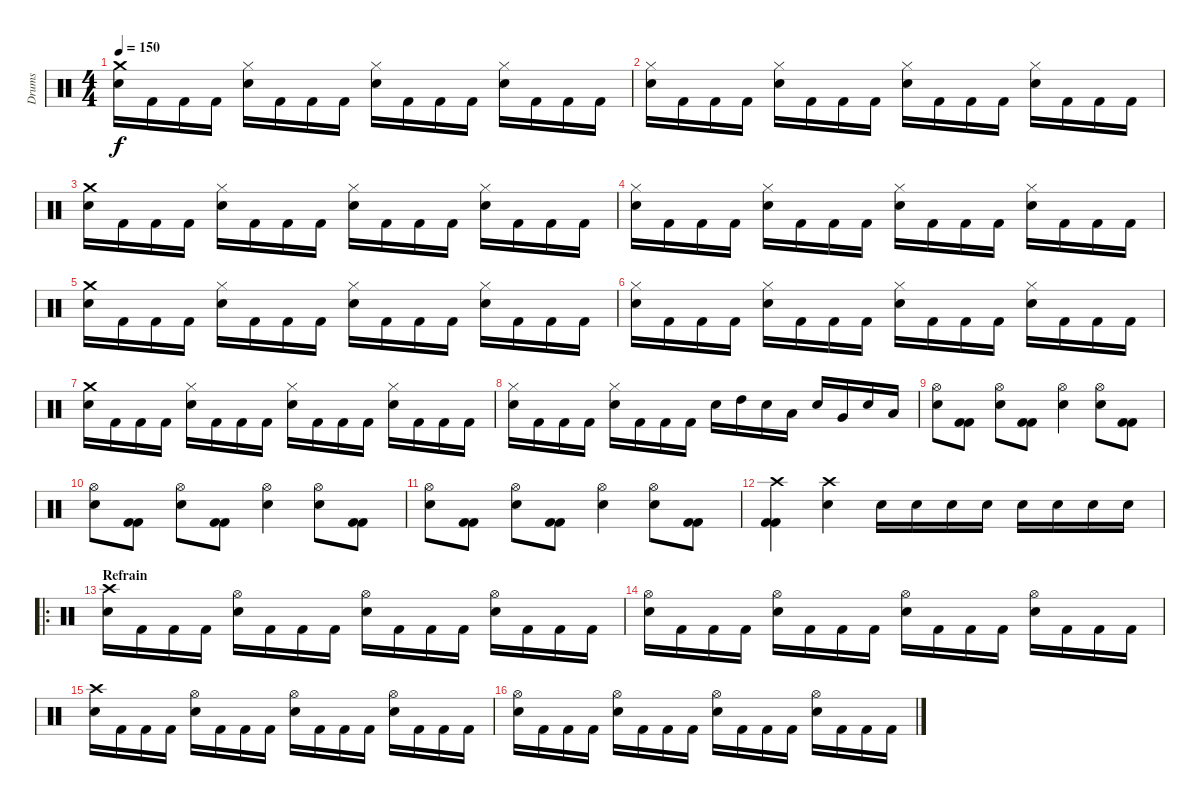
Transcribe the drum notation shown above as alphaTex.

\track ("Drums" "Drums") {instrument percussion}
\staff {score}
\articulation defaults
\ts (4 4)
\tempo 150
\clef neutral
\ks c
("Crash medium (hit)" "Electric Snare (hit)").16{dy f} "Kick (hit) 2".16 "Kick (hit) 2".16 "Kick (hit) 2".16 ("Electric Snare (hit)" "Hi-Hat (closed)").16 "Kick (hit) 2".16 "Kick (hit) 2".16 "Kick (hit) 2".16 ("Hi-Hat (closed)" "Electric Snare (hit)").16 "Kick (hit) 2".16 "Kick (hit) 2".16 "Kick (hit) 2".16 ("Electric Snare (hit)" "Hi-Hat (closed)").16 "Kick (hit) 2".16 "Kick (hit) 2".16 "Kick (hit) 2".16 |
("Hi-Hat (closed)" "Electric Snare (hit)").16 "Kick (hit) 2".16 "Kick (hit) 2".16 "Kick (hit) 2".16 ("Electric Snare (hit)" "Hi-Hat (closed)").16 "Kick (hit) 2".16 "Kick (hit) 2".16 "Kick (hit) 2".16 ("Hi-Hat (closed)" "Electric Snare (hit)").16 "Kick (hit) 2".16 "Kick (hit) 2".16 "Kick (hit) 2".16 ("Electric Snare (hit)" "Hi-Hat (closed)").16 "Kick (hit) 2".16 "Kick (hit) 2".16 "Kick (hit) 2".16 |
("Crash medium (hit)" "Electric Snare (hit)").16 "Kick (hit) 2".16 "Kick (hit) 2".16 "Kick (hit) 2".16 ("Electric Snare (hit)" "Hi-Hat (closed)").16 "Kick (hit) 2".16 "Kick (hit) 2".16 "Kick (hit) 2".16 ("Hi-Hat (closed)" "Electric Snare (hit)").16 "Kick (hit) 2".16 "Kick (hit) 2".16 "Kick (hit) 2".16 ("Electric Snare (hit)" "Hi-Hat (closed)").16 "Kick (hit) 2".16 "Kick (hit) 2".16 "Kick (hit) 2".16 |
("Hi-Hat (closed)" "Electric Snare (hit)").16 "Kick (hit) 2".16 "Kick (hit) 2".16 "Kick (hit) 2".16 ("Electric Snare (hit)" "Hi-Hat (closed)").16 "Kick (hit) 2".16 "Kick (hit) 2".16 "Kick (hit) 2".16 ("Hi-Hat (closed)" "Electric Snare (hit)").16 "Kick (hit) 2".16 "Kick (hit) 2".16 "Kick (hit) 2".16 ("Electric Snare (hit)" "Hi-Hat (closed)").16 "Kick (hit) 2".16 "Kick (hit) 2".16 "Kick (hit) 2".16 |
("Crash medium (hit)" "Electric Snare (hit)").16 "Kick (hit) 2".16 "Kick (hit) 2".16 "Kick (hit) 2".16 ("Electric Snare (hit)" "Hi-Hat (closed)").16 "Kick (hit) 2".16 "Kick (hit) 2".16 "Kick (hit) 2".16 ("Hi-Hat (closed)" "Electric Snare (hit)").16 "Kick (hit) 2".16 "Kick (hit) 2".16 "Kick (hit) 2".16 ("Electric Snare (hit)" "Hi-Hat (closed)").16 "Kick (hit) 2".16 "Kick (hit) 2".16 "Kick (hit) 2".16 |
("Hi-Hat (closed)" "Electric Snare (hit)").16 "Kick (hit) 2".16 "Kick (hit) 2".16 "Kick (hit) 2".16 ("Electric Snare (hit)" "Hi-Hat (closed)").16 "Kick (hit) 2".16 "Kick (hit) 2".16 "Kick (hit) 2".16 ("Hi-Hat (closed)" "Electric Snare (hit)").16 "Kick (hit) 2".16 "Kick (hit) 2".16 "Kick (hit) 2".16 ("Electric Snare (hit)" "Hi-Hat (closed)").16 "Kick (hit) 2".16 "Kick (hit) 2".16 "Kick (hit) 2".16 |
("Crash medium (hit)" "Electric Snare (hit)").16 "Kick (hit) 2".16 "Kick (hit) 2".16 "Kick (hit) 2".16 ("Electric Snare (hit)" "Hi-Hat (closed)").16 "Kick (hit) 2".16 "Kick (hit) 2".16 "Kick (hit) 2".16 ("Hi-Hat (closed)" "Electric Snare (hit)").16 "Kick (hit) 2".16 "Kick (hit) 2".16 "Kick (hit) 2".16 ("Electric Snare (hit)" "Hi-Hat (closed)").16 "Kick (hit) 2".16 "Kick (hit) 2".16 "Kick (hit) 2".16 |
("Hi-Hat (closed)" "Electric Snare (hit)").16 "Kick (hit) 2".16 "Kick (hit) 2".16 "Kick (hit) 2".16 ("Electric Snare (hit)" "Hi-Hat (closed)").16 "Kick (hit) 2".16 "Kick (hit) 2".16 "Kick (hit) 2".16 "Electric Snare (hit)".16 "High Tom (hit)".16 "Electric Snare (hit)".16 "Low Tom (hit)".16 "Electric Snare (hit)".16 "Very Low Tom (hit)".16 "Electric Snare (hit)".16 "Low Floor Tom (hit)".16 |
("Hi-Hat (open)" "Electric Snare (hit)").8 ("Kick (hit) 2" "Kick (hit) 2").8 ("Electric Snare (hit)" "Hi-Hat (open)").8 ("Kick (hit) 2" "Kick (hit) 2").8 ("Hi-Hat (open)" "Electric Snare (hit)").4 ("Hi-Hat (open)" "Electric Snare (hit)").8 ("Kick (hit) 2" "Kick (hit) 2").8 |
("Hi-Hat (open)" "Electric Snare (hit)").8 ("Kick (hit) 2" "Kick (hit) 2").8 ("Electric Snare (hit)" "Hi-Hat (open)").8 ("Kick (hit) 2" "Kick (hit) 2").8 ("Hi-Hat (open)" "Electric Snare (hit)").4 ("Hi-Hat (open)" "Electric Snare (hit)").8 ("Kick (hit) 2" "Kick (hit) 2").8 |
("Hi-Hat (open)" "Electric Snare (hit)").8 ("Kick (hit) 2" "Kick (hit) 2").8 ("Electric Snare (hit)" "Hi-Hat (open)").8 ("Kick (hit) 2" "Kick (hit) 2").8 ("Hi-Hat (open)" "Electric Snare (hit)").4 ("Hi-Hat (open)" "Electric Snare (hit)").8 ("Kick (hit) 2" "Kick (hit) 2").8 |
("Crash high (hit)" "Kick (hit) 2" "Kick (hit) 2").4 ("Electric Snare (hit)" "Crash high (hit)").4 "Electric Snare (hit)".16 "Electric Snare (hit)".16 "Electric Snare (hit)".16 "Electric Snare (hit)".16 "Electric Snare (hit)".16 "Electric Snare (hit)".16 "Electric Snare (hit)".16 "Electric Snare (hit)".16 |
\ro
\section ("" "Refrain")
("Electric Snare (hit)" "Crash high (hit)").16 "Kick (hit) 2".16 "Kick (hit) 2".16 "Kick (hit) 2".16 ("Hi-Hat (open)" "Electric Snare (hit)").16 "Kick (hit) 2".16 "Kick (hit) 2".16 "Kick (hit) 2".16 ("Electric Snare (hit)" "Hi-Hat (open)").16 "Kick (hit) 2".16 "Kick (hit) 2".16 "Kick (hit) 2".16 ("Electric Snare (hit)" "Hi-Hat (open)").16 "Kick (hit) 2".16 "Kick (hit) 2".16 "Kick (hit) 2".16 |
("Electric Snare (hit)" "Hi-Hat (open)").16 "Kick (hit) 2".16 "Kick (hit) 2".16 "Kick (hit) 2".16 ("Hi-Hat (open)" "Electric Snare (hit)").16 "Kick (hit) 2".16 "Kick (hit) 2".16 "Kick (hit) 2".16 ("Electric Snare (hit)" "Hi-Hat (open)").16 "Kick (hit) 2".16 "Kick (hit) 2".16 "Kick (hit) 2".16 ("Electric Snare (hit)" "Hi-Hat (open)").16 "Kick (hit) 2".16 "Kick (hit) 2".16 "Kick (hit) 2".16 |
("Electric Snare (hit)" "Crash high (hit)").16 "Kick (hit) 2".16 "Kick (hit) 2".16 "Kick (hit) 2".16 ("Hi-Hat (open)" "Electric Snare (hit)").16 "Kick (hit) 2".16 "Kick (hit) 2".16 "Kick (hit) 2".16 ("Electric Snare (hit)" "Hi-Hat (open)").16 "Kick (hit) 2".16 "Kick (hit) 2".16 "Kick (hit) 2".16 ("Electric Snare (hit)" "Hi-Hat (open)").16 "Kick (hit) 2".16 "Kick (hit) 2".16 "Kick (hit) 2".16 |
("Electric Snare (hit)" "Hi-Hat (open)").16 "Kick (hit) 2".16 "Kick (hit) 2".16 "Kick (hit) 2".16 ("Hi-Hat (open)" "Electric Snare (hit)").16 "Kick (hit) 2".16 "Kick (hit) 2".16 "Kick (hit) 2".16 ("Electric Snare (hit)" "Hi-Hat (open)").16 "Kick (hit) 2".16 "Kick (hit) 2".16 "Kick (hit) 2".16 ("Electric Snare (hit)" "Hi-Hat (open)").16 "Kick (hit) 2".16 "Kick (hit) 2".16 "Kick (hit) 2".16
